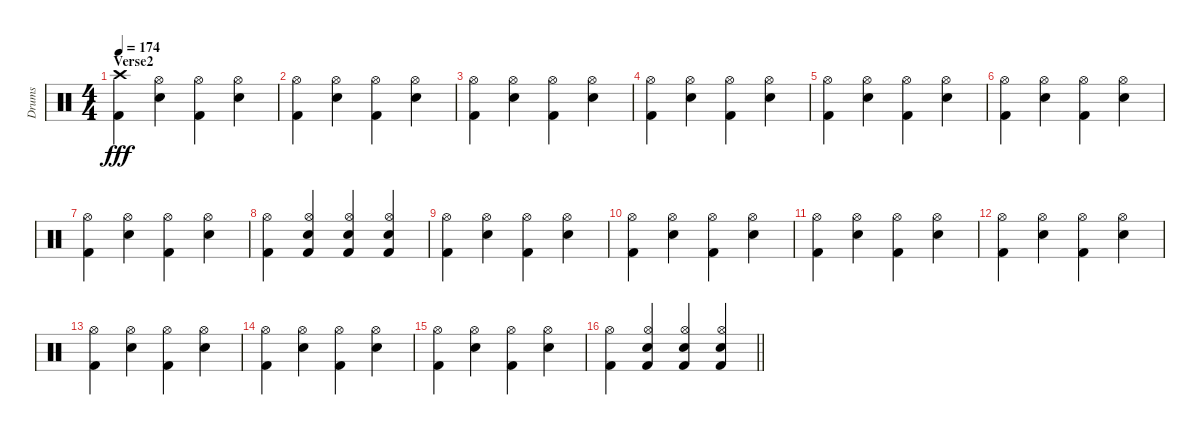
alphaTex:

\track ("Drums" "Drums") {instrument percussion}
\staff {score}
\articulation defaults
\ts (4 4)
\section ("" "Verse2")
\tempo 174
\clef neutral
\ks c
("Crash high (hit)" "Kick (hit) 2").4{dy fff} ("Hi-Hat (open)" "Electric Snare (hit)").4 ("Hi-Hat (open)" "Kick (hit) 2").4 ("Hi-Hat (open)" "Electric Snare (hit)").4 |
("Hi-Hat (open)" "Kick (hit) 2").4 ("Hi-Hat (open)" "Electric Snare (hit)").4 ("Hi-Hat (open)" "Kick (hit) 2").4 ("Hi-Hat (open)" "Electric Snare (hit)").4 |
("Hi-Hat (open)" "Kick (hit) 2").4 ("Hi-Hat (open)" "Electric Snare (hit)").4 ("Hi-Hat (open)" "Kick (hit) 2").4 ("Hi-Hat (open)" "Electric Snare (hit)").4 |
("Hi-Hat (open)" "Kick (hit) 2").4 ("Hi-Hat (open)" "Electric Snare (hit)").4 ("Hi-Hat (open)" "Kick (hit) 2").4 ("Hi-Hat (open)" "Electric Snare (hit)").4 |
("Hi-Hat (open)" "Kick (hit) 2").4 ("Hi-Hat (open)" "Electric Snare (hit)").4 ("Hi-Hat (open)" "Kick (hit) 2").4 ("Hi-Hat (open)" "Electric Snare (hit)").4 |
("Hi-Hat (open)" "Kick (hit) 2").4 ("Hi-Hat (open)" "Electric Snare (hit)").4 ("Hi-Hat (open)" "Kick (hit) 2").4 ("Hi-Hat (open)" "Electric Snare (hit)").4 |
("Hi-Hat (open)" "Kick (hit) 2").4 ("Hi-Hat (open)" "Electric Snare (hit)").4 ("Hi-Hat (open)" "Kick (hit) 2").4 ("Hi-Hat (open)" "Electric Snare (hit)").4 |
("Hi-Hat (open)" "Kick (hit) 2").4 ("Hi-Hat (open)" "Electric Snare (hit)" "Kick (hit) 2").4 ("Hi-Hat (open)" "Electric Snare (hit)" "Kick (hit) 2").4 ("Hi-Hat (open)" "Electric Snare (hit)" "Kick (hit) 2").4 |
("Hi-Hat (open)" "Kick (hit) 2").4 ("Hi-Hat (open)" "Electric Snare (hit)").4 ("Hi-Hat (open)" "Kick (hit) 2").4 ("Hi-Hat (open)" "Electric Snare (hit)").4 |
("Hi-Hat (open)" "Kick (hit) 2").4 ("Hi-Hat (open)" "Electric Snare (hit)").4 ("Hi-Hat (open)" "Kick (hit) 2").4 ("Hi-Hat (open)" "Electric Snare (hit)").4 |
("Hi-Hat (open)" "Kick (hit) 2").4 ("Hi-Hat (open)" "Electric Snare (hit)").4 ("Hi-Hat (open)" "Kick (hit) 2").4 ("Hi-Hat (open)" "Electric Snare (hit)").4 |
("Hi-Hat (open)" "Kick (hit) 2").4 ("Hi-Hat (open)" "Electric Snare (hit)").4 ("Hi-Hat (open)" "Kick (hit) 2").4 ("Hi-Hat (open)" "Electric Snare (hit)").4 |
("Hi-Hat (open)" "Kick (hit) 2").4 ("Hi-Hat (open)" "Electric Snare (hit)").4 ("Hi-Hat (open)" "Kick (hit) 2").4 ("Hi-Hat (open)" "Electric Snare (hit)").4 |
("Hi-Hat (open)" "Kick (hit) 2").4 ("Hi-Hat (open)" "Electric Snare (hit)").4 ("Hi-Hat (open)" "Kick (hit) 2").4 ("Hi-Hat (open)" "Electric Snare (hit)").4 |
("Hi-Hat (open)" "Kick (hit) 2").4 ("Hi-Hat (open)" "Electric Snare (hit)").4 ("Hi-Hat (open)" "Kick (hit) 2").4 ("Hi-Hat (open)" "Electric Snare (hit)").4 |
\barLineRight lightlight
("Hi-Hat (open)" "Kick (hit) 2").4 ("Hi-Hat (open)" "Electric Snare (hit)" "Kick (hit) 2").4 ("Hi-Hat (open)" "Electric Snare (hit)" "Kick (hit) 2").4 ("Hi-Hat (open)" "Electric Snare (hit)" "Kick (hit) 2").4
